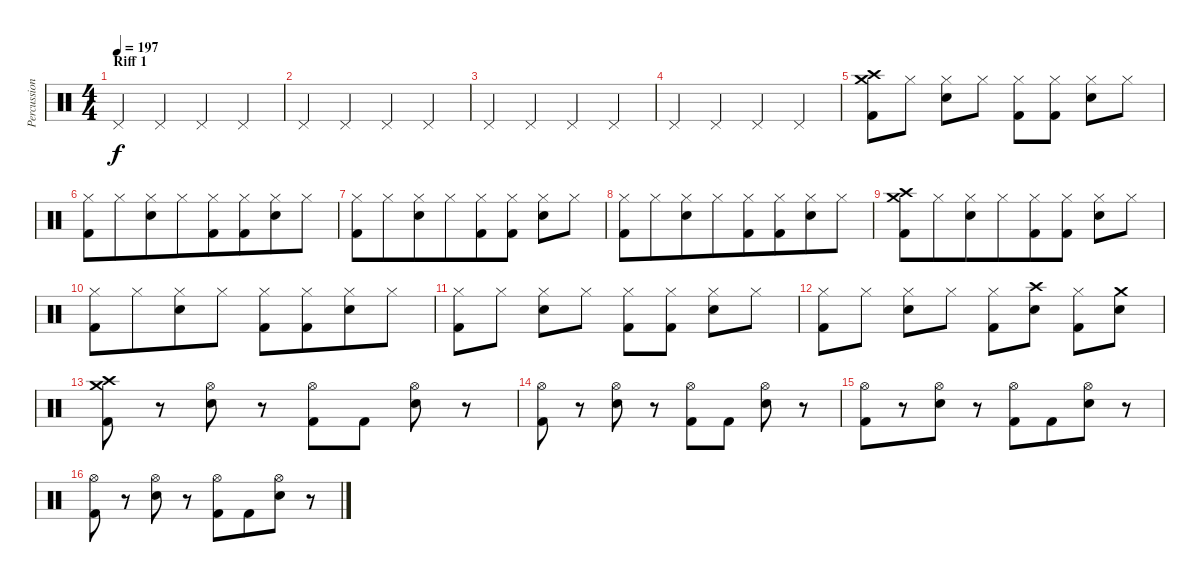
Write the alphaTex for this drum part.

\track ("Percussion" "Percussion") {instrument percussion}
\staff {score}
\articulation defaults
\ts (4 4)
\section ("" "Riff 1")
\tempo 197
\clef neutral
\ks c "Pedal Hi-Hat (hit)".4{dy f beam merge} "Pedal Hi-Hat (hit)".4{beam merge} "Pedal Hi-Hat (hit)".4 "Pedal Hi-Hat (hit)".4
|
"Pedal Hi-Hat (hit)".4 "Pedal Hi-Hat (hit)".4 "Pedal Hi-Hat (hit)".4 "Pedal Hi-Hat (hit)".4 |
"Pedal Hi-Hat (hit)".4 "Pedal Hi-Hat (hit)".4 "Pedal Hi-Hat (hit)".4 "Pedal Hi-Hat (hit)".4 |
"Pedal Hi-Hat (hit)".4{beam merge} "Pedal Hi-Hat (hit)".4{beam merge} "Pedal Hi-Hat (hit)".4 "Pedal Hi-Hat (hit)".4 |
("Crash medium (hit)" "Crash high (hit)" "Kick (hit) 2").8 "Hi-Hat (closed)".8 ("Hi-Hat (closed)" "Electric Snare (hit)").8 "Hi-Hat (closed)".8 ("Hi-Hat (closed)" "Kick (hit) 2").8 ("Hi-Hat (closed)" "Kick (hit) 2").8 ("Hi-Hat (closed)" "Electric Snare (hit)").8 "Hi-Hat (closed)".8 |
("Hi-Hat (closed)" "Kick (hit) 2").8 "Hi-Hat (closed)".8{beam merge} ("Hi-Hat (closed)" "Electric Snare (hit)").8{beam merge} "Hi-Hat (closed)".8{beam merge} ("Hi-Hat (closed)" "Kick (hit) 2").8 ("Hi-Hat (closed)" "Kick (hit) 2").8{beam merge} ("Hi-Hat (closed)" "Electric Snare (hit)").8{beam merge} "Hi-Hat (closed)".8 |
("Hi-Hat (closed)" "Kick (hit) 2").8 "Hi-Hat (closed)".8{beam merge} ("Hi-Hat (closed)" "Electric Snare (hit)").8 "Hi-Hat (closed)".8{beam merge} ("Hi-Hat (closed)" "Kick (hit) 2").8{beam merge} ("Hi-Hat (closed)" "Kick (hit) 2").8 ("Hi-Hat (closed)" "Electric Snare (hit)").8{beam merge} "Hi-Hat (closed)".8 |
("Hi-Hat (closed)" "Kick (hit) 2").8 "Hi-Hat (closed)".8{beam merge} ("Hi-Hat (closed)" "Electric Snare (hit)").8{beam merge} "Hi-Hat (closed)".8{beam merge} ("Hi-Hat (closed)" "Kick (hit) 2").8{beam merge} ("Hi-Hat (closed)" "Kick (hit) 2").8{beam merge} ("Hi-Hat (closed)" "Electric Snare (hit)").8{beam merge} "Hi-Hat (closed)".8 |
("Crash medium (hit)" "Crash high (hit)" "Kick (hit) 2").8{beam merge} "Hi-Hat (closed)".8{beam merge} ("Hi-Hat (closed)" "Electric Snare (hit)").8{beam merge} "Hi-Hat (closed)".8{beam merge} ("Hi-Hat (closed)" "Kick (hit) 2").8{beam merge} ("Hi-Hat (closed)" "Kick (hit) 2").8 ("Hi-Hat (closed)" "Electric Snare (hit)").8 "Hi-Hat (closed)".8 |
("Hi-Hat (closed)" "Kick (hit) 2").8{beam merge} "Hi-Hat (closed)".8{beam merge} ("Hi-Hat (closed)" "Electric Snare (hit)").8{beam merge} "Hi-Hat (closed)".8 ("Hi-Hat (closed)" "Kick (hit) 2").8 ("Hi-Hat (closed)" "Kick (hit) 2").8{beam merge} ("Hi-Hat (closed)" "Electric Snare (hit)").8 "Hi-Hat (closed)".8 |
("Hi-Hat (closed)" "Kick (hit) 2").8 "Hi-Hat (closed)".8 ("Hi-Hat (closed)" "Electric Snare (hit)").8 "Hi-Hat (closed)".8 ("Hi-Hat (closed)" "Kick (hit) 2").8 ("Hi-Hat (closed)" "Kick (hit) 2").8 ("Hi-Hat (closed)" "Electric Snare (hit)").8 "Hi-Hat (closed)".8 |
("Hi-Hat (closed)" "Kick (hit) 2").8 "Hi-Hat (closed)".8 ("Hi-Hat (closed)" "Electric Snare (hit)").8 "Hi-Hat (closed)".8 ("Hi-Hat (closed)" "Kick (hit) 2").8 ("Crash high (hit)" "Electric Snare (hit)").8 ("Hi-Hat (closed)" "Kick (hit) 2").8 ("Crash medium (hit)" "Electric Snare (hit)").8 |
("Crash medium (hit)" "Crash high (hit)" "Kick (hit) 2").8 r.8 ("Hi-Hat (open)" "Electric Snare (hit)").8 r.8 ("Hi-Hat (open)" "Kick (hit) 2").8 "Kick (hit) 2".8 ("Hi-Hat (open)" "Electric Snare (hit)").8 r.8 |
("Hi-Hat (open)" "Kick (hit) 2").8 r.8 ("Hi-Hat (open)" "Electric Snare (hit)").8 r.8 ("Hi-Hat (open)" "Kick (hit) 2").8 "Kick (hit) 2".8 ("Hi-Hat (open)" "Electric Snare (hit)").8 r.8 |
("Hi-Hat (open)" "Kick (hit) 2").8{beam merge} r.8 ("Hi-Hat (open)" "Electric Snare (hit)").8 r.8 ("Hi-Hat (open)" "Kick (hit) 2").8 "Kick (hit) 2".8{beam merge} ("Hi-Hat (open)" "Electric Snare (hit)").8 r.8 |
("Hi-Hat (open)" "Kick (hit) 2").8 r.8 ("Hi-Hat (open)" "Electric Snare (hit)").8 r.8{beam merge} ("Hi-Hat (open)" "Kick (hit) 2").8 "Kick (hit) 2".8{beam merge} ("Hi-Hat (open)" "Electric Snare (hit)").8{beam merge} r.8
